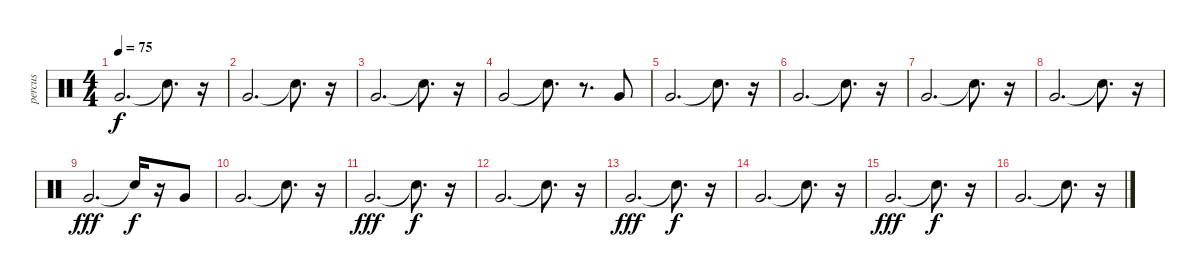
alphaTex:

\track ("percus" "percus") {instrument percussion}
\staff {score}
\articulation defaults
\ts (4 4)
\tempo 75
\clef neutral
\ks c "Very Low Tom (hit)".2{d dy f} "Snare (hit)"{t}.8{d}
r.16 |
"Very Low Tom (hit)".2{d} "Snare (hit)"{t}.8{d} r.16 |
"Very Low Tom (hit)".2{d} "Snare (hit)"{t}.8{d} r.16 |
"Very Low Tom (hit)".2 "Snare (hit)"{t}.8{d} r.8{d} "Very Low Tom (hit)".8 |
"Very Low Tom (hit)".2{d} "Snare (hit)"{t}.8{d} r.16 |
"Very Low Tom (hit)".2{d} "Snare (hit)"{t}.8{d} r.16 |
"Very Low Tom (hit)".2{d} "Snare (hit)"{t}.8{d} r.16 |
"Very Low Tom (hit)".2{d} "Snare (hit)"{t}.8{d} r.16 |
"Very Low Tom (hit)".2{d dy fff} "Snare (hit)"{t}.16{dy f} r.16 "Very Low Tom (hit)".8 |
"Very Low Tom (hit)".2{d} "Snare (hit)"{t}.8{d} r.16 |
"Very Low Tom (hit)".2{d dy fff} "Snare (hit)"{t}.8{d dy f} r.16 |
"Very Low Tom (hit)".2{d} "Snare (hit)"{t}.8{d} r.16 |
"Very Low Tom (hit)".2{d dy fff} "Snare (hit)"{t}.8{d dy f} r.16 |
"Very Low Tom (hit)".2{d} "Snare (hit)"{t}.8{d} r.16 |
"Very Low Tom (hit)".2{d dy fff} "Snare (hit)"{t}.8{d dy f} r.16 |
"Very Low Tom (hit)".2{d} "Snare (hit)"{t}.8{d} r.16
